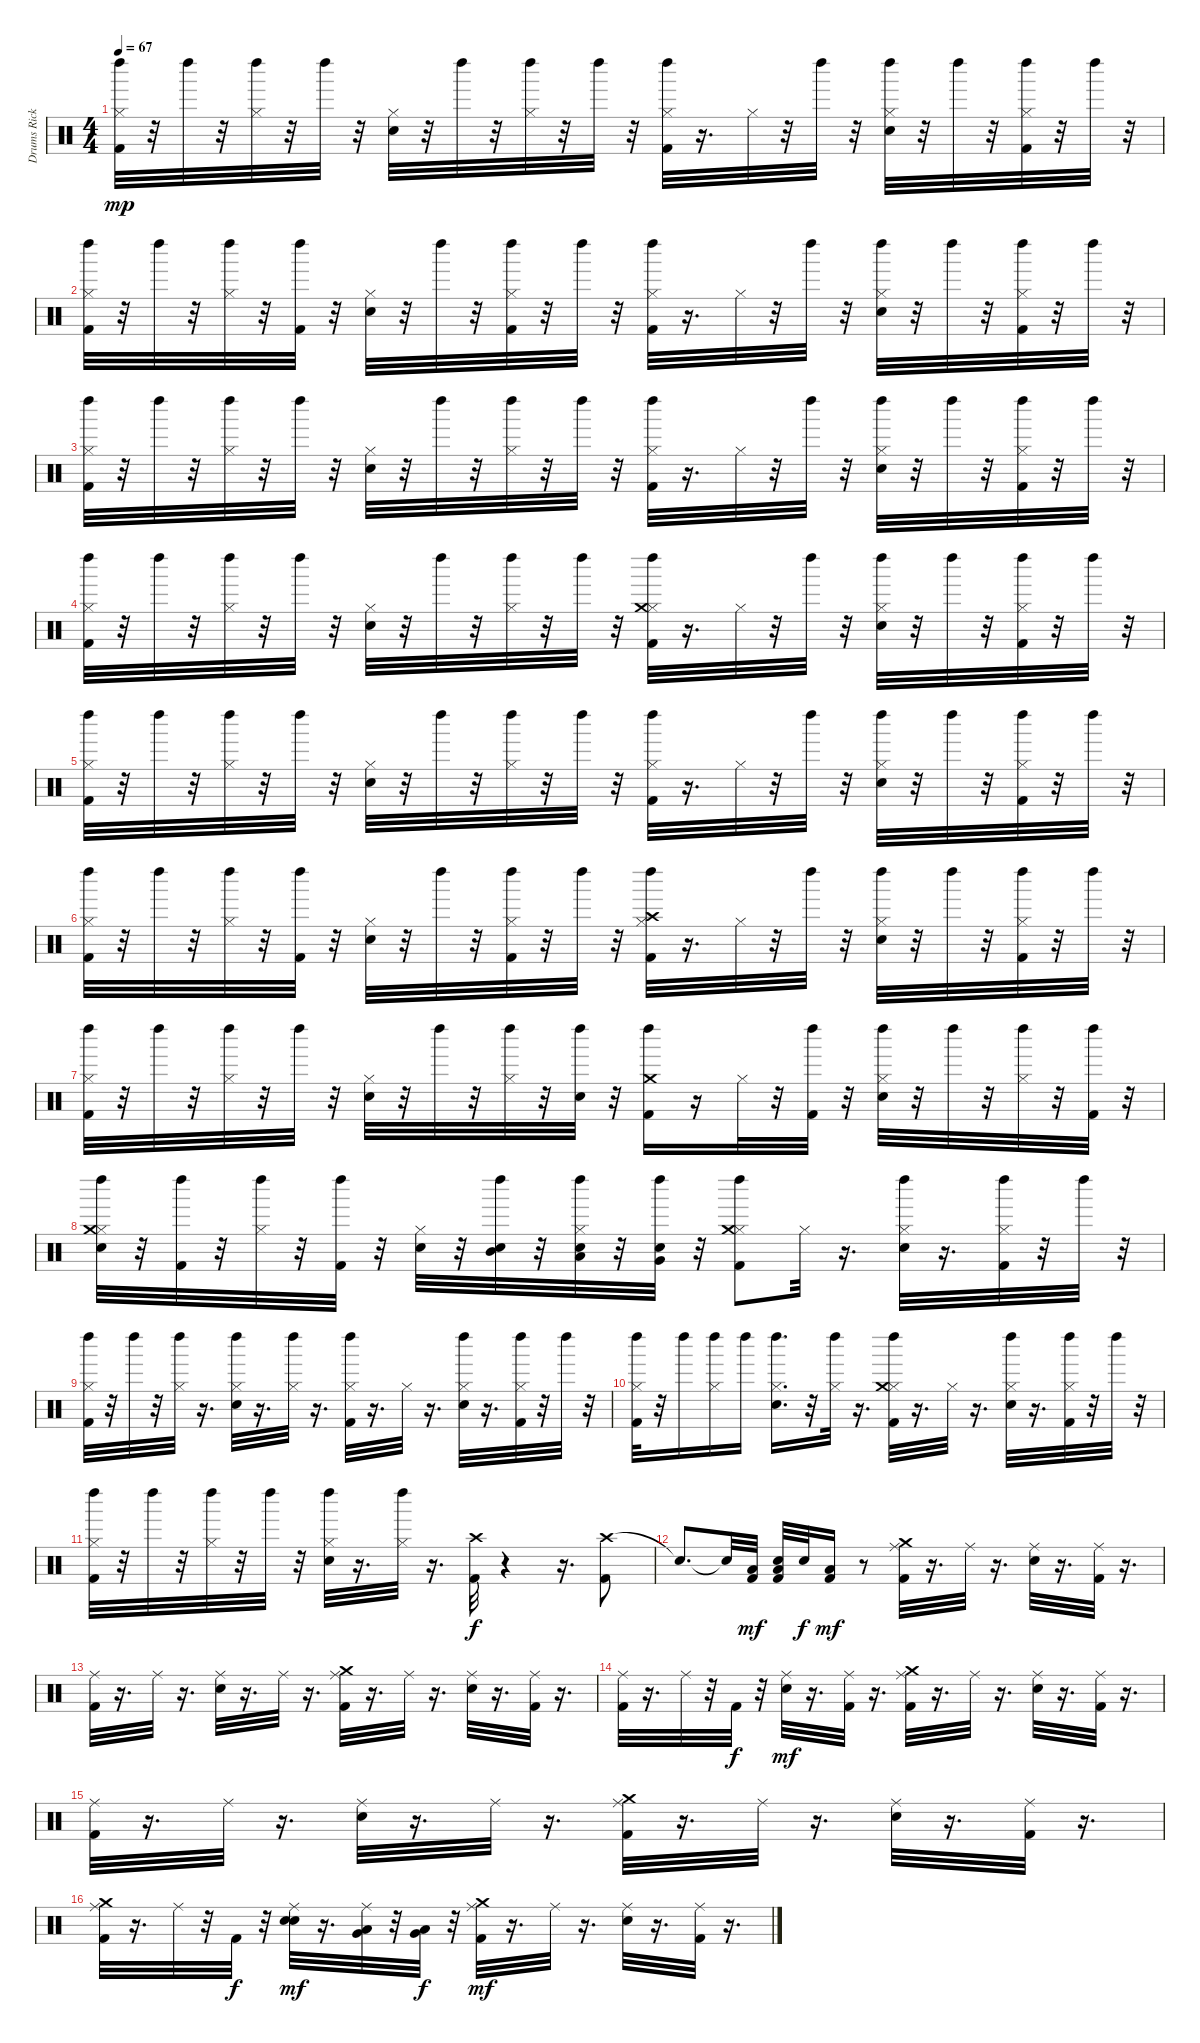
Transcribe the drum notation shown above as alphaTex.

\track ("Drums Rick Allen" "Drums Rick") {solo instrument percussion}
\staff {score}
\articulation defaults
\ts (4 4)
\tempo 67
\clef neutral
\ks c
("Kick (hit) 2" "Hi-Hat (closed)" "Left Maraca (hit)").32{dy mp} r.32 "Left Maraca (hit)".32 r.32 ("Hi-Hat (closed)" "Left Maraca (hit)").32 r.32 "Left Maraca (hit)".32 r.32 ("Electric Snare (hit)" "Hi-Hat (closed)").32 r.32 "Left Maraca (hit)".32 r.32 ("Hi-Hat (closed)" "Left Maraca (hit)").32 r.32 "Left Maraca (hit)".32 r.32 ("Kick (hit) 2" "Hi-Hat (closed)" "Left Maraca (hit)").32 r.16{d} "Hi-Hat (closed)".32 r.32 "Left Maraca (hit)".32 r.32 ("Electric Snare (hit)" "Hi-Hat (closed)" "Left Maraca (hit)").32 r.32 "Left Maraca (hit)".32 r.32 ("Kick (hit) 2" "Hi-Hat (closed)" "Left Maraca (hit)").32 r.32 "Left Maraca (hit)".32 r.32 |
("Kick (hit) 2" "Hi-Hat (closed)" "Left Maraca (hit)").32 r.32 "Left Maraca (hit)".32 r.32 ("Hi-Hat (closed)" "Left Maraca (hit)").32 r.32 ("Kick (hit) 2" "Left Maraca (hit)").32 r.32 ("Electric Snare (hit)" "Hi-Hat (closed)").32 r.32 "Left Maraca (hit)".32 r.32 ("Kick (hit) 2" "Hi-Hat (closed)" "Left Maraca (hit)").32 r.32 "Left Maraca (hit)".32 r.32 ("Kick (hit) 2" "Hi-Hat (closed)" "Left Maraca (hit)").32 r.16{d} "Hi-Hat (closed)".32 r.32 "Left Maraca (hit)".32 r.32 ("Electric Snare (hit)" "Hi-Hat (closed)" "Left Maraca (hit)").32 r.32 "Left Maraca (hit)".32 r.32 ("Kick (hit) 2" "Hi-Hat (closed)" "Left Maraca (hit)").32 r.32 "Left Maraca (hit)".32 r.32 |
("Kick (hit) 2" "Hi-Hat (closed)" "Left Maraca (hit)").32 r.32 "Left Maraca (hit)".32 r.32 ("Hi-Hat (closed)" "Left Maraca (hit)").32 r.32 "Left Maraca (hit)".32 r.32 ("Electric Snare (hit)" "Hi-Hat (closed)").32 r.32 "Left Maraca (hit)".32 r.32 ("Hi-Hat (closed)" "Left Maraca (hit)").32 r.32 "Left Maraca (hit)".32 r.32 ("Kick (hit) 2" "Hi-Hat (closed)" "Left Maraca (hit)").32 r.16{d} "Hi-Hat (closed)".32 r.32 "Left Maraca (hit)".32 r.32 ("Electric Snare (hit)" "Hi-Hat (closed)" "Left Maraca (hit)").32 r.32 "Left Maraca (hit)".32 r.32 ("Kick (hit) 2" "Hi-Hat (closed)" "Left Maraca (hit)").32 r.32 "Left Maraca (hit)".32 r.32 |
("Kick (hit) 2" "Hi-Hat (closed)" "Left Maraca (hit)").32 r.32 "Left Maraca (hit)".32 r.32 ("Hi-Hat (closed)" "Left Maraca (hit)").32 r.32 "Left Maraca (hit)".32 r.32 ("Electric Snare (hit)" "Hi-Hat (closed)").32 r.32 "Left Maraca (hit)".32 r.32 ("Hi-Hat (closed)" "Left Maraca (hit)").32 r.32 "Left Maraca (hit)".32 r.32 ("Kick (hit) 2" "Hi-Hat (closed)" "Crash medium (hit)" "Left Maraca (hit)").32 r.16{d} "Hi-Hat (closed)".32 r.32 "Left Maraca (hit)".32 r.32 ("Electric Snare (hit)" "Hi-Hat (closed)" "Left Maraca (hit)").32 r.32 "Left Maraca (hit)".32 r.32 ("Kick (hit) 2" "Hi-Hat (closed)" "Left Maraca (hit)").32 r.32 "Left Maraca (hit)".32 r.32 |
("Kick (hit) 2" "Hi-Hat (closed)" "Left Maraca (hit)").32 r.32 "Left Maraca (hit)".32 r.32 ("Hi-Hat (closed)" "Left Maraca (hit)").32 r.32 "Left Maraca (hit)".32 r.32 ("Electric Snare (hit)" "Hi-Hat (closed)").32 r.32 "Left Maraca (hit)".32 r.32 ("Hi-Hat (closed)" "Left Maraca (hit)").32 r.32 "Left Maraca (hit)".32 r.32 ("Kick (hit) 2" "Hi-Hat (closed)" "Left Maraca (hit)").32 r.16{d} "Hi-Hat (closed)".32 r.32 "Left Maraca (hit)".32 r.32 ("Electric Snare (hit)" "Hi-Hat (closed)" "Left Maraca (hit)").32 r.32 "Left Maraca (hit)".32 r.32 ("Kick (hit) 2" "Hi-Hat (closed)" "Left Maraca (hit)").32 r.32 "Left Maraca (hit)".32 r.32 |
("Kick (hit) 2" "Hi-Hat (closed)" "Left Maraca (hit)").32 r.32 "Left Maraca (hit)".32 r.32 ("Hi-Hat (closed)" "Left Maraca (hit)").32 r.32 ("Kick (hit) 2" "Left Maraca (hit)").32 r.32 ("Electric Snare (hit)" "Hi-Hat (closed)").32 r.32 "Left Maraca (hit)".32 r.32 ("Kick (hit) 2" "Hi-Hat (closed)" "Left Maraca (hit)").32 r.32 "Left Maraca (hit)".32 r.32 ("Kick (hit) 2" "Hi-Hat (closed)" "Crash high (hit)" "Left Maraca (hit)").32 r.16{d} "Hi-Hat (closed)".32 r.32 "Left Maraca (hit)".32 r.32 ("Electric Snare (hit)" "Hi-Hat (closed)" "Left Maraca (hit)").32 r.32 "Left Maraca (hit)".32 r.32 ("Kick (hit) 2" "Hi-Hat (closed)" "Left Maraca (hit)").32 r.32 "Left Maraca (hit)".32 r.32 |
("Kick (hit) 2" "Hi-Hat (closed)" "Left Maraca (hit)").32 r.32 "Left Maraca (hit)".32 r.32 ("Hi-Hat (closed)" "Left Maraca (hit)").32 r.32 "Left Maraca (hit)".32 r.32 ("Electric Snare (hit)" "Hi-Hat (closed)").32 r.32 "Left Maraca (hit)".32 r.32 ("Hi-Hat (closed)" "Left Maraca (hit)").32 r.32 ("Electric Snare (hit)" "Left Maraca (hit)").32 r.32 ("Crash medium (hit)" "Kick (hit) 2" "Left Maraca (hit)").16 r.16 "Hi-Hat (closed)".32 r.32 ("Kick (hit) 2" "Left Maraca (hit)").32 r.32 ("Electric Snare (hit)" "Hi-Hat (closed)" "Left Maraca (hit)").32 r.32 "Left Maraca (hit)".32 r.32 ("Hi-Hat (closed)" "Left Maraca (hit)").32 r.32 ("Kick (hit) 2" "Left Maraca (hit)").32 r.32 |
("Electric Snare (hit)" "Hi-Hat (closed)" "Crash medium (hit)" "Left Maraca (hit)").32 r.32 ("Kick (hit) 2" "Left Maraca (hit)").32 r.32 ("Hi-Hat (closed)" "Left Maraca (hit)").32 r.32 ("Kick (hit) 2" "Left Maraca (hit)").32 r.32 ("Electric Snare (hit)" "Hi-Hat (closed)").32 r.32 ("Electric Snare (hit)" "Mid Tom (hit)" "Left Maraca (hit)").32 r.32 ("Electric Snare (hit)" "Hi-Hat (closed)" "Low Tom (hit)" "Left Maraca (hit)").32 r.32 ("Electric Snare (hit)" "Very Low Tom (hit)" "Left Maraca (hit)").32 r.32 ("Kick (hit) 2" "Hi-Hat (closed)" "Crash medium (hit)" "Left Maraca (hit)").8 "Hi-Hat (closed)".32 r.16{d} ("Electric Snare (hit)" "Hi-Hat (closed)" "Left Maraca (hit)").32 r.16{d} ("Kick (hit) 2" "Hi-Hat (closed)" "Left Maraca (hit)").32 r.32 "Left Maraca (hit)".32 r.32 |
("Kick (hit) 2" "Hi-Hat (closed)" "Left Maraca (hit)").32 r.32 "Left Maraca (hit)".32 r.32 ("Hi-Hat (closed)" "Left Maraca (hit)").32 r.16{d} ("Electric Snare (hit)" "Hi-Hat (closed)" "Left Maraca (hit)").32 r.16{d} ("Hi-Hat (closed)" "Left Maraca (hit)").32 r.16{d} ("Kick (hit) 2" "Hi-Hat (closed)" "Left Maraca (hit)").32 r.16{d} "Hi-Hat (closed)".32 r.16{d} ("Electric Snare (hit)" "Hi-Hat (closed)" "Left Maraca (hit)").32 r.16{d} ("Kick (hit) 2" "Hi-Hat (closed)" "Left Maraca (hit)").32 r.32 "Left Maraca (hit)".32 r.32 |
("Kick (hit) 2" "Hi-Hat (closed)" "Left Maraca (hit)").32 r.32 "Left Maraca (hit)".16 ("Hi-Hat (closed)" "Left Maraca (hit)").16 "Left Maraca (hit)".16 ("Electric Snare (hit)" "Hi-Hat (closed)" "Left Maraca (hit)").16{d} r.32 ("Hi-Hat (closed)" "Left Maraca (hit)").32 r.16{d} ("Kick (hit) 2" "Hi-Hat (closed)" "Crash medium (hit)" "Left Maraca (hit)").32 r.16{d} "Hi-Hat (closed)".32 r.16{d} ("Electric Snare (hit)" "Hi-Hat (closed)" "Left Maraca (hit)").32 r.16{d} ("Kick (hit) 2" "Hi-Hat (closed)" "Left Maraca (hit)").32 r.32 "Left Maraca (hit)".32 r.32 |
("Kick (hit) 2" "Hi-Hat (closed)" "Left Maraca (hit)").32 r.32 "Left Maraca (hit)".32 r.32 ("Hi-Hat (closed)" "Left Maraca (hit)").32 r.32 "Left Maraca (hit)".32 r.32 ("Electric Snare (hit)" "Hi-Hat (closed)" "Left Maraca (hit)").32 r.16{d} ("Hi-Hat (closed)" "Left Maraca (hit)").32 r.16{d} ("Crash high (hit)" "Kick (hit) 2").32{dy f} r.4 r.16{d} ("Crash high (hit)" "Kick (hit) 2").8 |
"Snare (hit)"{t}.8{d} "Snare (hit)"{t}.32 ("Low Floor Tom (hit)" "Kick (hit) 2").32{dy mf} ("Low Floor Tom (hit)" "Kick (hit) 2" "Electric Snare (hit)").32 "Electric Snare (hit)".32{dy f} ("Low Floor Tom (hit)" "Kick (hit) 2").16{dy mf} r.8 ("Kick (hit) 2" "Ride (middle)" "Crash medium (hit)").32 r.16{d} "Ride (middle)".32 r.16{d} ("Electric Snare (hit)" "Ride (middle)").32 r.16{d} ("Kick (hit) 2" "Ride (middle)").32 r.16{d} |
("Kick (hit) 2" "Ride (middle)").32 r.16{d} "Ride (middle)".32 r.16{d} ("Electric Snare (hit)" "Ride (middle)").32 r.16{d} "Ride (middle)".32 r.16{d} ("Kick (hit) 2" "Ride (middle)" "Crash medium (hit)").32 r.16{d} "Ride (middle)".32 r.16{d} ("Electric Snare (hit)" "Ride (middle)").32 r.16{d} ("Kick (hit) 2" "Ride (middle)").32 r.16{d} |
("Kick (hit) 2" "Ride (middle)").32 r.16{d} "Ride (middle)".32 r.32 "Kick (hit) 2".32{dy f} r.32 ("Electric Snare (hit)" "Ride (middle)").32{dy mf} r.16{d} ("Kick (hit) 2" "Ride (middle)").32 r.16{d} ("Kick (hit) 2" "Ride (middle)" "Crash medium (hit)").32 r.16{d} "Ride (middle)".32 r.16{d} ("Electric Snare (hit)" "Ride (middle)").32 r.16{d} ("Kick (hit) 2" "Ride (middle)").32 r.16{d} |
("Kick (hit) 2" "Ride (middle)").32 r.16{d} "Ride (middle)".32 r.16{d} ("Electric Snare (hit)" "Ride (middle)").32 r.16{d} "Ride (middle)".32 r.16{d} ("Kick (hit) 2" "Ride (middle)" "Crash medium (hit)").32 r.16{d} "Ride (middle)".32 r.16{d} ("Electric Snare (hit)" "Ride (middle)").32 r.16{d} ("Kick (hit) 2" "Ride (middle)").32 r.16{d} |
("Kick (hit) 2" "Ride (middle)" "Crash medium (hit)").32 r.16{d} "Ride (middle)".32 r.32 "Kick (hit) 2".32{dy f} r.32 ("Electric Snare (hit)" "Electric Snare (hit)" "Ride (middle)").32{dy mf} r.16{d} ("Ride (middle)" "Low Floor Tom (hit)" "Very Low Tom (hit)").32 r.32 ("Low Floor Tom (hit)" "Very Low Tom (hit)").32{dy f} r.32 ("Kick (hit) 2" "Ride (middle)" "Crash medium (hit)").32{dy mf} r.16{d} "Ride (middle)".32 r.16{d} ("Electric Snare (hit)" "Ride (middle)").32 r.16{d} ("Kick (hit) 2" "Ride (middle)").32 r.16{d}
